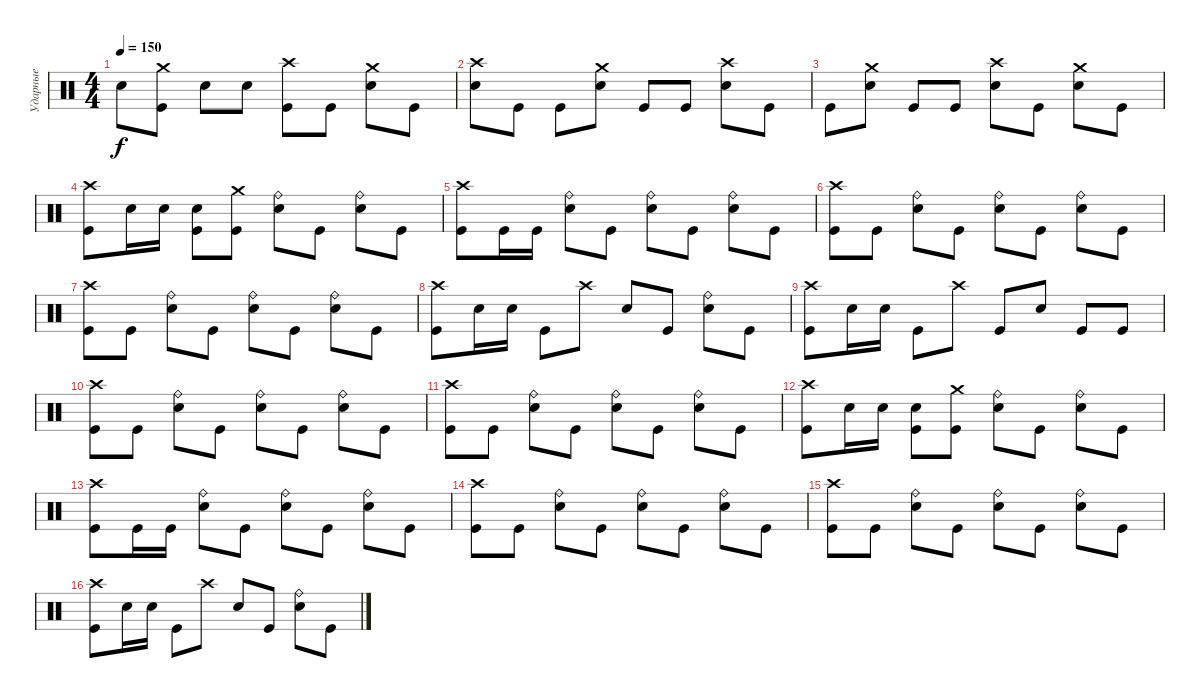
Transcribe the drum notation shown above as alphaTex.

\track ("Ударные" "Ударные") {instrument percussion}
\staff {score}
\articulation defaults
\ts (4 4)
\tempo 150
\clef neutral
\ks c "Electric Snare (hit)".8{dy f}
("Kick (hit)" "Crash medium (hit)").8 "Electric Snare (hit)".8 "Electric Snare (hit)".8 ("Kick (hit)" "Crash high (hit)").8 "Kick (hit)".8 ("Electric Snare (hit)" "Crash medium (hit)").8 "Kick (hit)".8 |
("Crash high (hit)" "Electric Snare (hit)").8 "Kick (hit)".8 "Kick (hit)".8 ("Electric Snare (hit)" "Crash medium (hit)").8 "Kick (hit)".8 "Kick (hit)".8 ("Electric Snare (hit)" "Crash high (hit)").8 "Kick (hit)".8 |
"Kick (hit)".8 ("Electric Snare (hit)" "Crash medium (hit)").8 "Kick (hit)".8 "Kick (hit)".8 ("Electric Snare (hit)" "Crash high (hit)").8 "Kick (hit)".8 ("Electric Snare (hit)" "Crash medium (hit)").8 "Kick (hit)".8 |
("Crash high (hit)" "Kick (hit)").8 "Electric Snare (hit)".16 "Electric Snare (hit)".16 ("Electric Snare (hit)" "Kick (hit)").8 ("Crash medium (hit)" "Kick (hit)").8 ("Ride (bell)" "Electric Snare (hit)").8 "Kick (hit)".8 ("Ride (bell)" "Electric Snare (hit)").8 "Kick (hit)".8 |
("Crash high (hit)" "Kick (hit)").8 "Kick (hit)".16 "Kick (hit)".16 ("Ride (bell)" "Electric Snare (hit)").8 "Kick (hit)".8 ("Ride (bell)" "Electric Snare (hit)").8 "Kick (hit)".8 ("Ride (bell)" "Electric Snare (hit)").8 "Kick (hit)".8 |
("Crash high (hit)" "Kick (hit)").8 "Kick (hit)".8 ("Ride (bell)" "Electric Snare (hit)").8 "Kick (hit)".8 ("Ride (bell)" "Electric Snare (hit)").8 "Kick (hit)".8 ("Ride (bell)" "Electric Snare (hit)").8 "Kick (hit)".8 |
("Crash high (hit)" "Kick (hit)").8 "Kick (hit)".8 ("Ride (bell)" "Electric Snare (hit)").8 "Kick (hit)".8 ("Ride (bell)" "Electric Snare (hit)").8 "Kick (hit)".8 ("Ride (bell)" "Electric Snare (hit)").8 "Kick (hit)".8 |
("Crash high (hit)" "Kick (hit)").8 "Electric Snare (hit)".16 "Electric Snare (hit)".16 "Kick (hit)".8 "Crash high (hit)".8 "Electric Snare (hit)".8 "Kick (hit)".8 ("Ride (bell)" "Electric Snare (hit)").8 "Kick (hit)".8 |
("Crash high (hit)" "Kick (hit)").8 "Electric Snare (hit)".16 "Electric Snare (hit)".16 "Kick (hit)".8 "Crash high (hit)".8 "Kick (hit)".8 "Electric Snare (hit)".8 "Kick (hit)".8 "Kick (hit)".8 |
("Crash high (hit)" "Kick (hit)").8 "Kick (hit)".8 ("Ride (bell)" "Electric Snare (hit)").8 "Kick (hit)".8 ("Ride (bell)" "Electric Snare (hit)").8 "Kick (hit)".8 ("Ride (bell)" "Electric Snare (hit)").8 "Kick (hit)".8 |
("Crash high (hit)" "Kick (hit)").8 "Kick (hit)".8 ("Ride (bell)" "Electric Snare (hit)").8 "Kick (hit)".8 ("Ride (bell)" "Electric Snare (hit)").8 "Kick (hit)".8 ("Ride (bell)" "Electric Snare (hit)").8 "Kick (hit)".8 |
("Crash high (hit)" "Kick (hit)").8 "Electric Snare (hit)".16 "Electric Snare (hit)".16 ("Electric Snare (hit)" "Kick (hit)").8 ("Crash medium (hit)" "Kick (hit)").8 ("Ride (bell)" "Electric Snare (hit)").8 "Kick (hit)".8 ("Ride (bell)" "Electric Snare (hit)").8 "Kick (hit)".8 |
("Crash high (hit)" "Kick (hit)").8 "Kick (hit)".16 "Kick (hit)".16 ("Ride (bell)" "Electric Snare (hit)").8 "Kick (hit)".8 ("Ride (bell)" "Electric Snare (hit)").8 "Kick (hit)".8 ("Ride (bell)" "Electric Snare (hit)").8 "Kick (hit)".8 |
("Crash high (hit)" "Kick (hit)").8 "Kick (hit)".8 ("Ride (bell)" "Electric Snare (hit)").8 "Kick (hit)".8 ("Ride (bell)" "Electric Snare (hit)").8 "Kick (hit)".8 ("Ride (bell)" "Electric Snare (hit)").8 "Kick (hit)".8 |
("Crash high (hit)" "Kick (hit)").8 "Kick (hit)".8 ("Ride (bell)" "Electric Snare (hit)").8 "Kick (hit)".8 ("Ride (bell)" "Electric Snare (hit)").8 "Kick (hit)".8 ("Ride (bell)" "Electric Snare (hit)").8 "Kick (hit)".8 |
("Crash high (hit)" "Kick (hit)").8 "Electric Snare (hit)".16 "Electric Snare (hit)".16 "Kick (hit)".8 "Crash high (hit)".8 "Electric Snare (hit)".8 "Kick (hit)".8 ("Ride (bell)" "Electric Snare (hit)").8 "Kick (hit)".8
